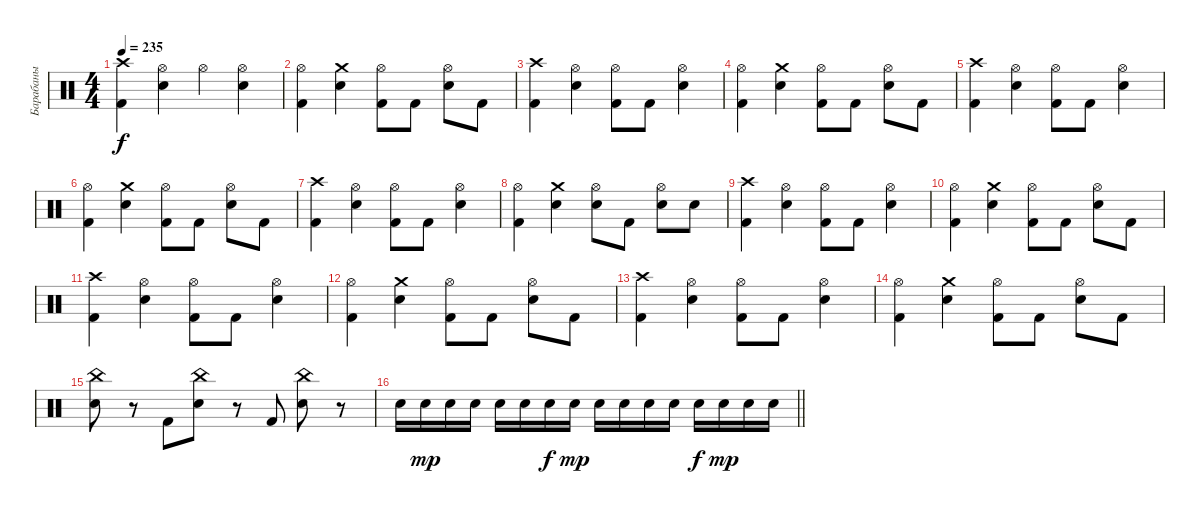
\track ("Барабаны" "Барабаны") {instrument percussion}
\staff {score}
\articulation defaults
\ts (4 4)
\tempo 235
\clef neutral
\ks c
("Crash high (hit)" "Kick (hit) 2").4{dy f} ("Electric Snare (hit)" "Hi-Hat (open)").4 "Hi-Hat (open)".4 ("Hi-Hat (open)" "Electric Snare (hit)").4 |
("Kick (hit) 2" "Hi-Hat (open)").4 ("Crash medium (hit)" "Electric Snare (hit)").4 ("Kick (hit) 2" "Hi-Hat (open)").8 "Kick (hit) 2".8 ("Hi-Hat (open)" "Electric Snare (hit)").8 "Kick (hit) 2".8 |
("Kick (hit) 2" "Crash high (hit)").4 ("Electric Snare (hit)" "Hi-Hat (open)").4 ("Hi-Hat (open)" "Kick (hit) 2").8 "Kick (hit) 2".8 ("Hi-Hat (open)" "Electric Snare (hit)").4 |
("Hi-Hat (open)" "Kick (hit) 2").4 ("Crash medium (hit)" "Electric Snare (hit)").4 ("Kick (hit) 2" "Hi-Hat (open)").8 "Kick (hit) 2".8 ("Hi-Hat (open)" "Electric Snare (hit)").8 "Kick (hit) 2".8 |
("Crash high (hit)" "Kick (hit) 2").4 ("Hi-Hat (open)" "Electric Snare (hit)").4 ("Hi-Hat (open)" "Kick (hit) 2").8 "Kick (hit) 2".8 ("Electric Snare (hit)" "Hi-Hat (open)").4 |
("Hi-Hat (open)" "Kick (hit) 2").4 ("Crash medium (hit)" "Electric Snare (hit)").4 ("Hi-Hat (open)" "Kick (hit) 2").8 "Kick (hit) 2".8 ("Electric Snare (hit)" "Hi-Hat (open)").8 "Kick (hit) 2".8 |
("Crash high (hit)" "Kick (hit) 2").4 ("Electric Snare (hit)" "Hi-Hat (open)").4 ("Kick (hit) 2" "Hi-Hat (open)").8 "Kick (hit) 2".8 ("Electric Snare (hit)" "Hi-Hat (open)").4 |
("Hi-Hat (open)" "Kick (hit) 2").4 ("Crash medium (hit)" "Electric Snare (hit)").4 ("Hi-Hat (open)" "Electric Snare (hit)").8 "Kick (hit) 2".8 ("Electric Snare (hit)" "Hi-Hat (open)").8 "Electric Snare (hit)".8 |
("Crash high (hit)" "Kick (hit) 2").4 ("Electric Snare (hit)" "Hi-Hat (open)").4 ("Kick (hit) 2" "Hi-Hat (open)").8 "Kick (hit) 2".8 ("Electric Snare (hit)" "Hi-Hat (open)").4 |
("Hi-Hat (open)" "Kick (hit) 2").4 ("Crash medium (hit)" "Electric Snare (hit)").4 ("Hi-Hat (open)" "Kick (hit) 2").8 "Kick (hit) 2".8 ("Electric Snare (hit)" "Hi-Hat (open)").8 "Kick (hit) 2".8 |
("Crash high (hit)" "Kick (hit) 2").4 ("Electric Snare (hit)" "Hi-Hat (open)").4 ("Kick (hit) 2" "Hi-Hat (open)").8 "Kick (hit) 2".8 ("Electric Snare (hit)" "Hi-Hat (open)").4 |
("Hi-Hat (open)" "Kick (hit) 2").4 ("Crash medium (hit)" "Electric Snare (hit)").4 ("Kick (hit) 2" "Hi-Hat (open)").8 "Kick (hit) 2".8 ("Hi-Hat (open)" "Electric Snare (hit)").8 "Kick (hit) 2".8 |
("Crash high (hit)" "Kick (hit) 2").4 ("Electric Snare (hit)" "Hi-Hat (open)").4 ("Hi-Hat (open)" "Kick (hit) 2").8 "Kick (hit) 2".8 ("Hi-Hat (open)" "Electric Snare (hit)").4 |
("Hi-Hat (open)" "Kick (hit) 2").4 ("Crash medium (hit)" "Electric Snare (hit)").4 ("Hi-Hat (open)" "Kick (hit) 2").8 "Kick (hit) 2".8 ("Electric Snare (hit)" "Hi-Hat (open)").8 "Kick (hit) 2".8 |
("Electric Snare (hit)" "China (hit)").8 r.8 "Kick (hit) 2".8 ("China (hit)" "Electric Snare (hit)").8 r.8 "Kick (hit) 2".8 ("Electric Snare (hit)" "China (hit)").8 r.8 |
\barLineRight lightlight "Electric Snare (hit)".16 "Electric Snare (hit)".16{dy mp} "Electric Snare (hit)".16 "Electric Snare (hit)".16 "Electric Snare (hit)".16 "Electric Snare (hit)".16 "Electric Snare (hit)".16{dy f} "Electric Snare (hit)".16{dy mp} "Electric Snare (hit)".16 "Electric Snare (hit)".16 "Electric Snare (hit)".16 "Electric Snare (hit)".16 "Electric Snare (hit)".16{dy f} "Electric Snare (hit)".16{dy mp} "Electric Snare (hit)".16 "Electric Snare (hit)".16
